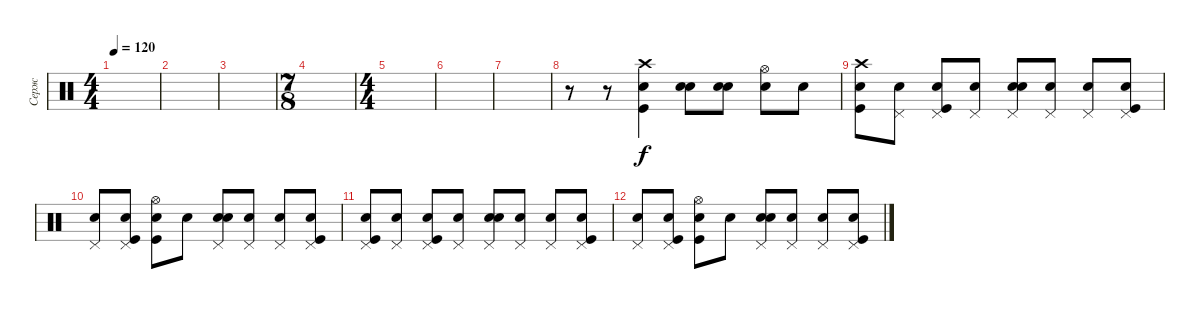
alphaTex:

\track ("Серж" "Серж") {instrument percussion}
\staff {score}
\articulation defaults
\ts (4 4)
\tempo 120
\clef neutral
\ks c
|
|
|
\ts (7 8)
|
\ts (4 4)
|
|
|
r.8 r.8 ("Crash high (hit)" "Kick (hit)" "Snare (hit)"{x}).4 ("Electric Snare (hit)" "Snare (hit)"{x}).8 ("Electric Snare (hit)" "Snare (hit)"{x}).8 ("Hi-Hat (open)" "Snare (hit)"{x}).8 "Snare (hit)"{x}.8 |
("Crash high (hit)" "Kick (hit)" "Snare (hit)"{x}).8 ("Pedal Hi-Hat (hit)" "Snare (hit)"{x}).8 ("Pedal Hi-Hat (hit)" "Kick (hit)" "Snare (hit)"{x}).8 ("Pedal Hi-Hat (hit)" "Snare (hit)"{x}).8 ("Pedal Hi-Hat (hit)" "Snare (hit) 2" "Snare (hit)"{x}).8 ("Pedal Hi-Hat (hit)" "Snare (hit)"{x}).8 ("Pedal Hi-Hat (hit)" "Snare (hit)"{x}).8 ("Pedal Hi-Hat (hit)" "Kick (hit)" "Snare (hit)"{x}).8 |
("Pedal Hi-Hat (hit)" "Snare (hit)"{x}).8 ("Pedal Hi-Hat (hit)" "Kick (hit)" "Snare (hit)"{x}).8 ("Hi-Hat (open)" "Kick (hit)" "Snare (hit)"{x}).8 "Snare (hit)"{x}.8 ("Pedal Hi-Hat (hit)" "Snare (hit) 2" "Snare (hit)"{x}).8 ("Pedal Hi-Hat (hit)" "Snare (hit)"{x}).8 ("Pedal Hi-Hat (hit)" "Snare (hit)"{x}).8 ("Pedal Hi-Hat (hit)" "Kick (hit)" "Snare (hit)"{x}).8 |
("Pedal Hi-Hat (hit)" "Kick (hit)" "Snare (hit)"{x}).8 ("Pedal Hi-Hat (hit)" "Snare (hit)"{x}).8 ("Pedal Hi-Hat (hit)" "Kick (hit)" "Snare (hit)"{x}).8 ("Pedal Hi-Hat (hit)" "Snare (hit)"{x}).8 ("Pedal Hi-Hat (hit)" "Snare (hit) 2" "Snare (hit)"{x}).8 ("Pedal Hi-Hat (hit)" "Snare (hit)"{x}).8 ("Pedal Hi-Hat (hit)" "Snare (hit)"{x}).8 ("Pedal Hi-Hat (hit)" "Kick (hit)" "Snare (hit)"{x}).8 |
("Pedal Hi-Hat (hit)" "Snare (hit)"{x}).8 ("Pedal Hi-Hat (hit)" "Kick (hit)" "Snare (hit)"{x}).8 ("Hi-Hat (open)" "Kick (hit)" "Snare (hit)"{x}).8 "Snare (hit)"{x}.8 ("Pedal Hi-Hat (hit)" "Snare (hit) 2" "Snare (hit)"{x}).8 ("Pedal Hi-Hat (hit)" "Snare (hit)"{x}).8 ("Pedal Hi-Hat (hit)" "Snare (hit)"{x}).8 ("Pedal Hi-Hat (hit)" "Kick (hit)" "Snare (hit)"{x}).8
